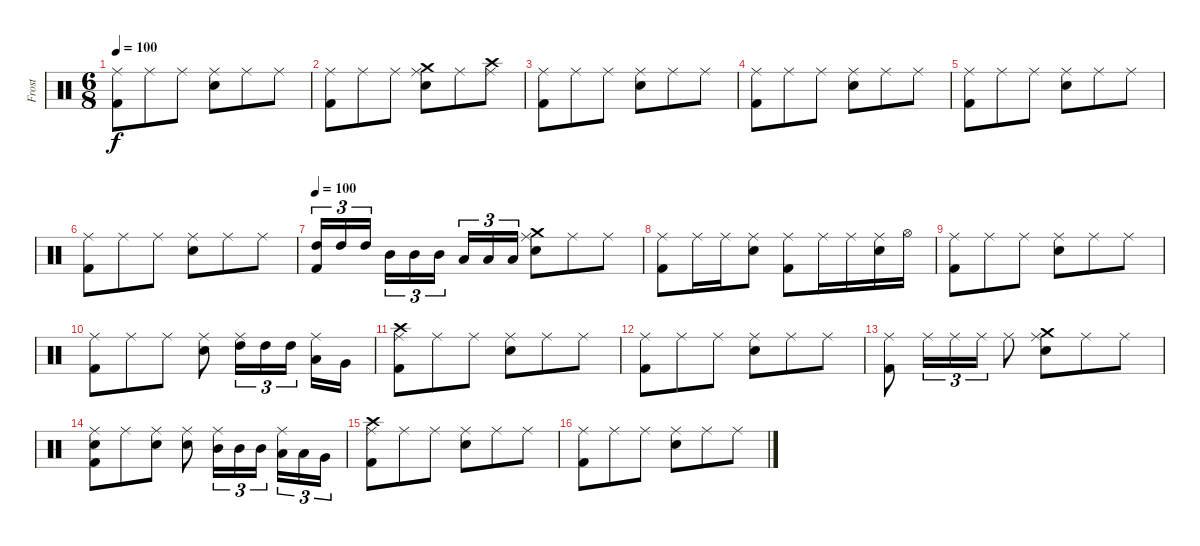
\track ("Frost" "Frost") {instrument percussion}
\staff {score}
\articulation defaults
\ts (6 8)
\tempo 100
\clef neutral
\ks c
("Kick (hit) 2" "Ride (middle)").8{dy f} "Ride (middle)".8 "Ride (middle)".8 ("Snare (hit) 2" "Ride (middle)").8 "Ride (middle)".8 "Ride (middle)".8 |
("Kick (hit) 2" "Ride (middle)").8 "Ride (middle)".8 "Ride (middle)".8 ("Crash medium (hit)" "Snare (hit) 2" "Ride (middle)").8 "Ride (middle)".8 ("Crash high (hit)" "Ride (middle)").8 |
("Kick (hit) 2" "Ride (middle)").8 "Ride (middle)".8 "Ride (middle)".8 ("Snare (hit) 2" "Ride (middle)").8 "Ride (middle)".8 "Ride (middle)".8 |
("Kick (hit) 2" "Ride (middle)").8 "Ride (middle)".8 "Ride (middle)".8 ("Snare (hit) 2" "Ride (middle)").8 "Ride (middle)".8 "Ride (middle)".8 |
("Kick (hit) 2" "Ride (middle)").8 "Ride (middle)".8 "Ride (middle)".8 ("Snare (hit) 2" "Ride (middle)").8 "Ride (middle)".8 "Ride (middle)".8 |
("Kick (hit) 2" "Ride (middle)").8 "Ride (middle)".8 "Ride (middle)".8 ("Snare (hit) 2" "Ride (middle)").8 "Ride (middle)".8 "Ride (middle)".8 |
\tempo 100
("Kick (hit) 2" "High Tom (hit)").16{tu (3 2)} "High Tom (hit)".16{tu (3 2)} "High Tom (hit)".16{tu (3 2)} "Mid Tom (hit)".16{tu (3 2)} "Mid Tom (hit)".16{tu (3 2)} "Mid Tom (hit)".16{tu (3 2)} "Low Tom (hit)".16{tu (3 2)} "Low Tom (hit)".16{tu (3 2)} "Low Tom (hit)".16{tu (3 2)} ("Crash medium (hit)" "Snare (hit) 2" "Ride (middle)").8 "Ride (middle)".8 "Ride (middle)".8 |
("Kick (hit) 2" "Ride (middle)").8 "Ride (middle)".16 "Ride (middle)".16 ("Snare (hit) 2" "Ride (middle)").8 ("Kick (hit) 2" "Ride (middle)").8 "Ride (middle)".16 "Ride (middle)".16 ("Snare (hit) 2" "Ride (middle)").16 "Hi-Hat (open)".16 |
("Kick (hit) 2" "Ride (middle)").8 "Ride (middle)".8 "Ride (middle)".8 ("Snare (hit) 2" "Ride (middle)").8 "Ride (middle)".8 "Ride (middle)".8 |
("Kick (hit) 2" "Ride (middle)").8 "Ride (middle)".8 "Ride (middle)".8 ("Snare (hit) 2" "Ride (middle)").8 ("High Tom (hit)" "Ride (middle)").16{tu (3 2)} "High Tom (hit)".16{tu (3 2)} "High Tom (hit)".16{tu (3 2)} ("Low Tom (hit)" "Ride (middle)").16 "Very Low Tom (hit)".16 |
("Kick (hit) 2" "Crash high (hit)" "Ride (middle)").8 "Ride (middle)".8 "Ride (middle)".8 ("Snare (hit) 2" "Ride (middle)").8 "Ride (middle)".8 "Ride (middle)".8 |
("Kick (hit) 2" "Ride (middle)").8 "Ride (middle)".8 "Ride (middle)".8 ("Snare (hit) 2" "Ride (middle)").8 "Ride (middle)".8 "Ride (middle)".8 |
("Kick (hit) 2" "Ride (middle)").8 "Ride (middle)".16{tu (3 2)} "Ride (middle)".16{tu (3 2)} "Ride (middle)".16{tu (3 2)} "Ride (middle)".8 ("Crash medium (hit)" "Snare (hit) 2" "Ride (middle)").8 "Ride (middle)".8 "Ride (middle)".8 |
("Kick (hit) 2" "Snare (hit) 2" "Ride (middle)").8 "Ride (middle)".8 ("Snare (hit) 2" "Ride (middle)").8 ("Snare (hit) 2" "Ride (middle)").8 ("Mid Tom (hit)" "Ride (middle)").16{tu (3 2)} "Mid Tom (hit)".16{tu (3 2)} "Mid Tom (hit)".16{tu (3 2)} ("Low Tom (hit)" "Ride (middle)").16{tu (3 2)} "Low Tom (hit)".16{tu (3 2)} "Very Low Tom (hit)".16{tu (3 2)} |
("Kick (hit) 2" "Crash high (hit)" "Ride (middle)").8 "Ride (middle)".8 "Ride (middle)".8 ("Snare (hit) 2" "Ride (middle)").8 "Ride (middle)".8 "Ride (middle)".8 |
("Kick (hit) 2" "Ride (middle)").8 "Ride (middle)".8 "Ride (middle)".8 ("Snare (hit) 2" "Ride (middle)").8 "Ride (middle)".8 "Ride (middle)".8
